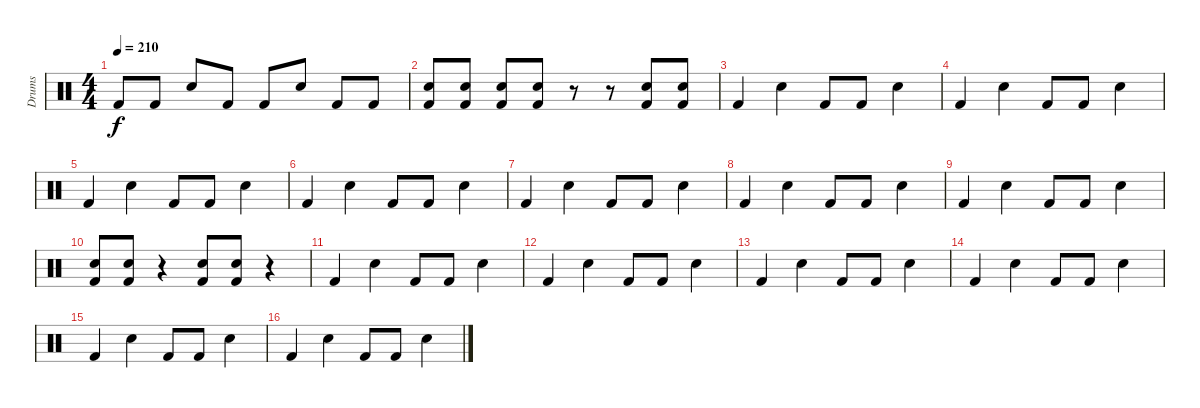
\track ("Drums" "Drums") {instrument percussion}
\staff {score}
\articulation defaults
\ts (4 4)
\tempo 210
\clef neutral
\ks c "Kick (hit) 2".8{dy f} "Kick (hit) 2".8 "Snare (hit) 2".8 "Kick (hit) 2".8 "Kick (hit) 2".8 "Snare (hit) 2".8 "Kick (hit) 2".8 "Kick (hit) 2".8
|
("Kick (hit) 2" "Snare (hit) 2").8 ("Kick (hit) 2" "Snare (hit) 2").8 ("Kick (hit) 2" "Snare (hit) 2").8 ("Kick (hit) 2" "Snare (hit) 2").8 r.8 r.8 ("Kick (hit) 2" "Snare (hit) 2").8 ("Kick (hit) 2" "Snare (hit) 2").8 |
"Kick (hit) 2".4 "Snare (hit) 2".4 "Kick (hit) 2".8 "Kick (hit) 2".8 "Snare (hit) 2".4 |
"Kick (hit) 2".4 "Snare (hit) 2".4 "Kick (hit) 2".8 "Kick (hit) 2".8 "Snare (hit) 2".4 |
"Kick (hit) 2".4 "Snare (hit) 2".4 "Kick (hit) 2".8 "Kick (hit) 2".8 "Snare (hit) 2".4 |
"Kick (hit) 2".4 "Snare (hit) 2".4 "Kick (hit) 2".8 "Kick (hit) 2".8 "Snare (hit) 2".4 |
"Kick (hit) 2".4 "Snare (hit) 2".4 "Kick (hit) 2".8 "Kick (hit) 2".8 "Snare (hit) 2".4 |
"Kick (hit) 2".4 "Snare (hit) 2".4 "Kick (hit) 2".8 "Kick (hit) 2".8 "Snare (hit) 2".4 |
"Kick (hit) 2".4 "Snare (hit) 2".4 "Kick (hit) 2".8 "Kick (hit) 2".8 "Snare (hit) 2".4 |
("Kick (hit) 2" "Snare (hit) 2").8 ("Kick (hit) 2" "Snare (hit) 2").8 r.4 ("Kick (hit) 2" "Snare (hit) 2").8 ("Kick (hit) 2" "Snare (hit) 2").8 r.4 |
"Kick (hit) 2".4 "Snare (hit) 2".4 "Kick (hit) 2".8 "Kick (hit) 2".8 "Snare (hit) 2".4 |
"Kick (hit) 2".4 "Snare (hit) 2".4 "Kick (hit) 2".8 "Kick (hit) 2".8 "Snare (hit) 2".4 |
"Kick (hit) 2".4 "Snare (hit) 2".4 "Kick (hit) 2".8 "Kick (hit) 2".8 "Snare (hit) 2".4 |
"Kick (hit) 2".4 "Snare (hit) 2".4 "Kick (hit) 2".8 "Kick (hit) 2".8 "Snare (hit) 2".4 |
"Kick (hit) 2".4 "Snare (hit) 2".4 "Kick (hit) 2".8 "Kick (hit) 2".8 "Snare (hit) 2".4 |
"Kick (hit) 2".4 "Snare (hit) 2".4 "Kick (hit) 2".8 "Kick (hit) 2".8 "Snare (hit) 2".4
